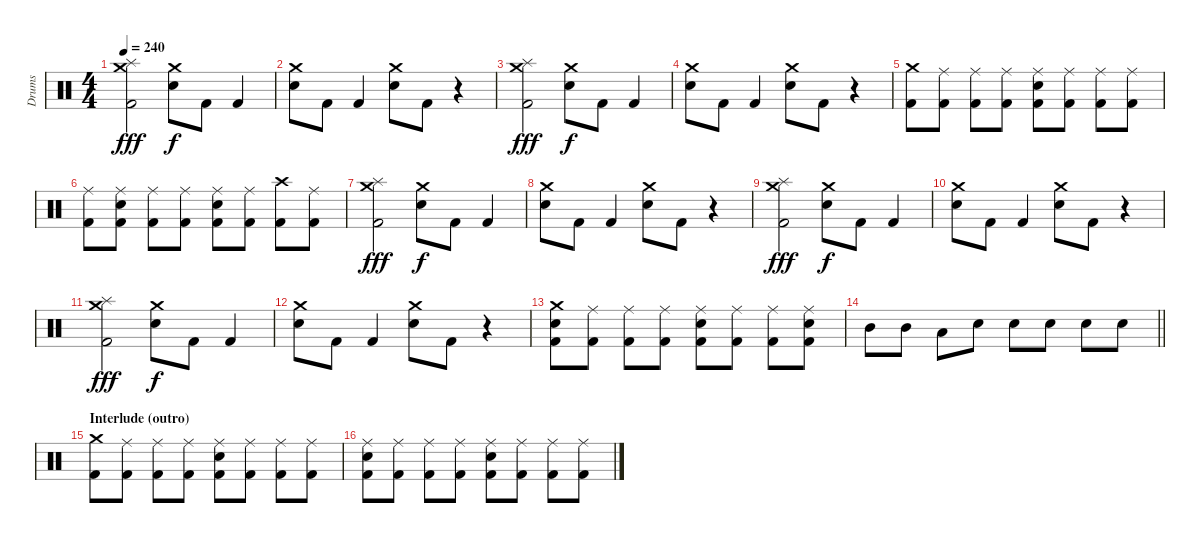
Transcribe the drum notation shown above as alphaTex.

\track ("Drums" "Drums") {instrument percussion}
\staff {score}
\articulation defaults
\ts (4 4)
\tempo 240
\clef neutral
\ks c
("Splash (hit)" "Crash medium (hit)" "Kick (hit) 2").2{dy fff} ("Crash medium (hit)" "Electric Snare (hit)").8{dy f} "Kick (hit) 2".8 "Kick (hit) 2".4 |
("Crash medium (hit)" "Electric Snare (hit)").8 "Kick (hit) 2".8 "Kick (hit) 2".4 ("Crash medium (hit)" "Electric Snare (hit)").8 "Kick (hit) 2".8 r.4 |
("Splash (hit)" "Crash medium (hit)" "Kick (hit) 2").2{dy fff} ("Crash medium (hit)" "Electric Snare (hit)").8{dy f} "Kick (hit) 2".8 "Kick (hit) 2".4 |
("Crash medium (hit)" "Electric Snare (hit)").8 "Kick (hit) 2".8 "Kick (hit) 2".4 ("Crash medium (hit)" "Electric Snare (hit)").8 "Kick (hit) 2".8 r.4 |
("Crash medium (hit)" "Kick (hit) 2").8 ("Ride (middle)" "Kick (hit) 2").8 ("Ride (middle)" "Kick (hit) 2").8 ("Ride (middle)" "Kick (hit) 2").8 ("Ride (middle)" "Electric Snare (hit)" "Kick (hit) 2").8 ("Ride (middle)" "Kick (hit) 2").8 ("Ride (middle)" "Kick (hit) 2").8 ("Ride (middle)" "Kick (hit) 2").8 |
("Ride (middle)" "Kick (hit) 2").8 ("Ride (middle)" "Electric Snare (hit)" "Kick (hit) 2").8 ("Ride (middle)" "Kick (hit) 2").8 ("Ride (middle)" "Kick (hit) 2").8 ("Ride (middle)" "Electric Snare (hit)" "Kick (hit) 2").8 ("Ride (middle)" "Kick (hit) 2").8 ("Crash high (hit)" "Kick (hit) 2").8 ("Ride (middle)" "Kick (hit) 2").8 |
("Splash (hit)" "Crash medium (hit)" "Kick (hit) 2").2{dy fff} ("Crash medium (hit)" "Electric Snare (hit)").8{dy f} "Kick (hit) 2".8 "Kick (hit) 2".4 |
("Crash medium (hit)" "Electric Snare (hit)").8 "Kick (hit) 2".8 "Kick (hit) 2".4 ("Crash medium (hit)" "Electric Snare (hit)").8 "Kick (hit) 2".8 r.4 |
("Splash (hit)" "Crash medium (hit)" "Kick (hit) 2").2{dy fff} ("Crash medium (hit)" "Electric Snare (hit)").8{dy f} "Kick (hit) 2".8 "Kick (hit) 2".4 |
("Crash medium (hit)" "Electric Snare (hit)").8 "Kick (hit) 2".8 "Kick (hit) 2".4 ("Crash medium (hit)" "Electric Snare (hit)").8 "Kick (hit) 2".8 r.4 |
("Splash (hit)" "Crash medium (hit)" "Kick (hit) 2").2{dy fff} ("Crash medium (hit)" "Electric Snare (hit)").8{dy f} "Kick (hit) 2".8 "Kick (hit) 2".4 |
("Crash medium (hit)" "Electric Snare (hit)").8 "Kick (hit) 2".8 "Kick (hit) 2".4 ("Crash medium (hit)" "Electric Snare (hit)").8 "Kick (hit) 2".8 r.4 |
("Crash medium (hit)" "Electric Snare (hit)" "Kick (hit) 2").8 ("Ride (middle)" "Kick (hit) 2").8 ("Ride (middle)" "Kick (hit) 2").8 ("Ride (middle)" "Kick (hit) 2").8 ("Ride (middle)" "Electric Snare (hit)" "Kick (hit) 2").8 ("Ride (middle)" "Kick (hit) 2").8 ("Ride (middle)" "Kick (hit) 2").8 ("Ride (middle)" "Electric Snare (hit)" "Kick (hit) 2").8 |
\barLineRight lightlight "Mid Tom (hit)".8 "Mid Tom (hit)".8 "Low Tom (hit)".8 "Electric Snare (hit)".8 "Electric Snare (hit)".8 "Electric Snare (hit)".8 "Electric Snare (hit)".8 "Electric Snare (hit)".8
|
\section ("" "Interlude (outro)")
("Crash medium (hit)" "Kick (hit) 2").8 ("Ride (middle)" "Kick (hit) 2").8 ("Ride (middle)" "Kick (hit) 2").8 ("Ride (middle)" "Kick (hit) 2").8 ("Ride (middle)" "Electric Snare (hit)" "Kick (hit) 2").8 ("Ride (middle)" "Kick (hit) 2").8 ("Ride (middle)" "Kick (hit) 2").8 ("Ride (middle)" "Kick (hit) 2").8 |
("Ride (middle)" "Electric Snare (hit)" "Kick (hit) 2").8 ("Ride (middle)" "Kick (hit) 2").8 ("Ride (middle)" "Kick (hit) 2").8 ("Ride (middle)" "Kick (hit) 2").8 ("Ride (middle)" "Electric Snare (hit)" "Kick (hit) 2").8 ("Ride (middle)" "Kick (hit) 2").8 ("Ride (middle)" "Kick (hit) 2").8 ("Ride (middle)" "Kick (hit) 2").8
